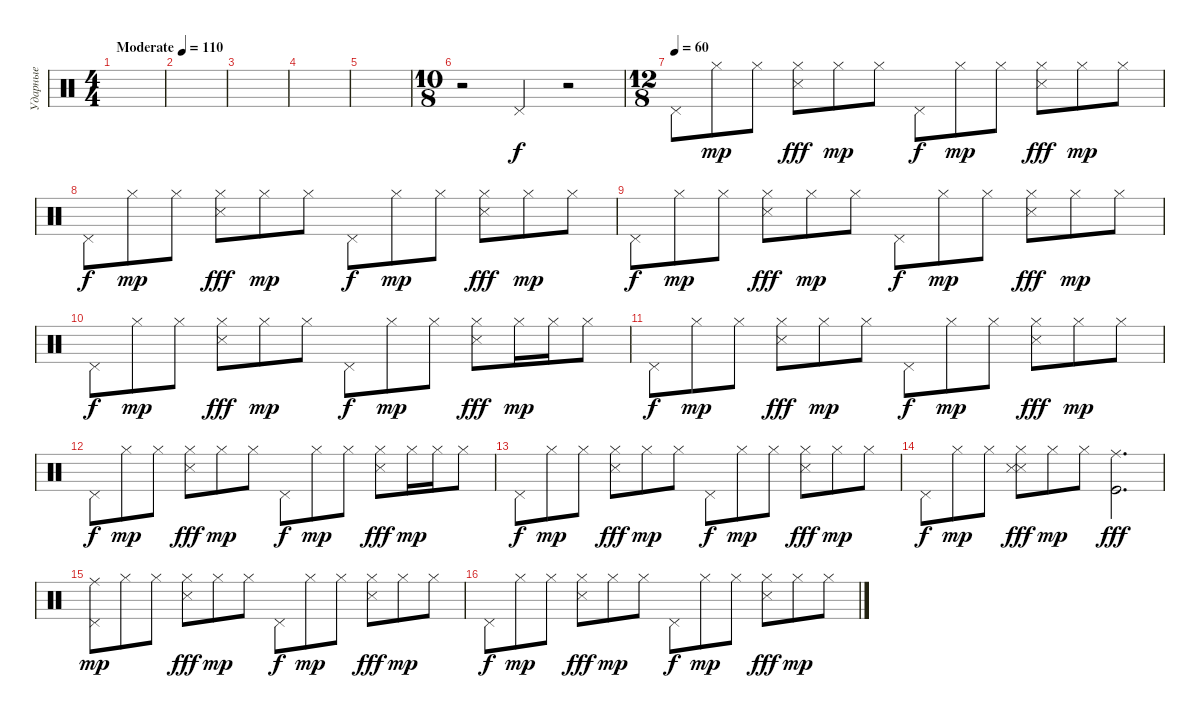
\track ("Ударные" "Ударные") {instrument percussion}
\staff {score}
\articulation defaults
\ts (4 4)
\tempo (110 "Moderate")
\clef neutral
\ks c
|
|
|
|
|
\ts (10 8)
r.2 "Pedal Hi-Hat (hit)".4 r.2 |
\ts (12 8)
\tempo (60)
"Pedal Hi-Hat (hit)".8{dy f} "Hi-Hat (closed)".8{dy mp} "Hi-Hat (closed)".8 ("Hi-Hat (closed)" "Snare (side stick) 3").8{dy fff} "Hi-Hat (closed)".8{dy mp} "Hi-Hat (closed)".8 "Pedal Hi-Hat (hit)".8{dy f} "Hi-Hat (closed)".8{dy mp} "Hi-Hat (closed)".8 ("Hi-Hat (closed)" "Snare (side stick) 3").8{dy fff} "Hi-Hat (closed)".8{dy mp} "Hi-Hat (closed)".8 |
"Pedal Hi-Hat (hit)".8{dy f} "Hi-Hat (closed)".8{dy mp} "Hi-Hat (closed)".8 ("Hi-Hat (closed)" "Snare (side stick) 3").8{dy fff} "Hi-Hat (closed)".8{dy mp} "Hi-Hat (closed)".8 "Pedal Hi-Hat (hit)".8{dy f} "Hi-Hat (closed)".8{dy mp} "Hi-Hat (closed)".8 ("Hi-Hat (closed)" "Snare (side stick) 3").8{dy fff} "Hi-Hat (closed)".8{dy mp} "Hi-Hat (closed)".8 |
"Pedal Hi-Hat (hit)".8{dy f} "Hi-Hat (closed)".8{dy mp} "Hi-Hat (closed)".8 ("Hi-Hat (closed)" "Snare (side stick) 3").8{dy fff} "Hi-Hat (closed)".8{dy mp} "Hi-Hat (closed)".8 "Pedal Hi-Hat (hit)".8{dy f} "Hi-Hat (closed)".8{dy mp} "Hi-Hat (closed)".8 ("Hi-Hat (closed)" "Snare (side stick) 3").8{dy fff} "Hi-Hat (closed)".8{dy mp} "Hi-Hat (closed)".8 |
"Pedal Hi-Hat (hit)".8{dy f} "Hi-Hat (closed)".8{dy mp} "Hi-Hat (closed)".8 ("Hi-Hat (closed)" "Snare (side stick) 3").8{dy fff} "Hi-Hat (closed)".8{dy mp} "Hi-Hat (closed)".8 "Pedal Hi-Hat (hit)".8{dy f} "Hi-Hat (closed)".8{dy mp} "Hi-Hat (closed)".8 ("Hi-Hat (closed)" "Snare (side stick) 3").8{dy fff} "Hi-Hat (closed)".16{dy mp} "Hi-Hat (closed)".16 "Hi-Hat (closed)".8 |
"Pedal Hi-Hat (hit)".8{dy f} "Hi-Hat (closed)".8{dy mp} "Hi-Hat (closed)".8 ("Hi-Hat (closed)" "Snare (side stick) 3").8{dy fff} "Hi-Hat (closed)".8{dy mp} "Hi-Hat (closed)".8 "Pedal Hi-Hat (hit)".8{dy f} "Hi-Hat (closed)".8{dy mp} "Hi-Hat (closed)".8 ("Hi-Hat (closed)" "Snare (side stick) 3").8{dy fff} "Hi-Hat (closed)".8{dy mp} "Hi-Hat (closed)".8 |
"Pedal Hi-Hat (hit)".8{dy f} "Hi-Hat (closed)".8{dy mp} "Hi-Hat (closed)".8 ("Hi-Hat (closed)" "Snare (side stick) 3").8{dy fff} "Hi-Hat (closed)".8{dy mp} "Hi-Hat (closed)".8 "Pedal Hi-Hat (hit)".8{dy f} "Hi-Hat (closed)".8{dy mp} "Hi-Hat (closed)".8 ("Hi-Hat (closed)" "Snare (side stick) 3").8{dy fff} "Hi-Hat (closed)".16{dy mp} "Hi-Hat (closed)".16 "Hi-Hat (closed)".8 |
"Pedal Hi-Hat (hit)".8{dy f} "Hi-Hat (closed)".8{dy mp} "Hi-Hat (closed)".8 ("Hi-Hat (closed)" "Snare (side stick) 3").8{dy fff} "Hi-Hat (closed)".8{dy mp} "Hi-Hat (closed)".8 "Pedal Hi-Hat (hit)".8{dy f} "Hi-Hat (closed)".8{dy mp} "Hi-Hat (closed)".8 ("Hi-Hat (closed)" "Snare (side stick) 3").8{dy fff} "Hi-Hat (closed)".8{dy mp} "Hi-Hat (closed)".8 |
"Pedal Hi-Hat (hit)".8{dy f} "Hi-Hat (closed)".8{dy mp} "Hi-Hat (closed)".8 ("Hi-Hat (closed)" "Snare (side stick) 3" "Metronome (hit)").8{dy fff} "Hi-Hat (closed)".8{dy mp} "Hi-Hat (closed)".8 ("Ride (middle)" "Kick (hit)").2{d dy fff} |
("Pedal Hi-Hat (hit)" "Ride (middle)").8{dy mp} "Hi-Hat (closed)".8 "Hi-Hat (closed)".8 ("Hi-Hat (closed)" "Snare (side stick) 3").8{dy fff} "Hi-Hat (closed)".8{dy mp} "Hi-Hat (closed)".8 "Pedal Hi-Hat (hit)".8{dy f} "Hi-Hat (closed)".8{dy mp} "Hi-Hat (closed)".8 ("Hi-Hat (closed)" "Snare (side stick) 3").8{dy fff} "Hi-Hat (closed)".8{dy mp} "Hi-Hat (closed)".8 |
"Pedal Hi-Hat (hit)".8{dy f} "Hi-Hat (closed)".8{dy mp} "Hi-Hat (closed)".8 ("Hi-Hat (closed)" "Snare (side stick) 3").8{dy fff} "Hi-Hat (closed)".8{dy mp} "Hi-Hat (closed)".8 "Pedal Hi-Hat (hit)".8{dy f} "Hi-Hat (closed)".8{dy mp} "Hi-Hat (closed)".8 ("Hi-Hat (closed)" "Snare (side stick) 3").8{dy fff} "Hi-Hat (closed)".8{dy mp} "Hi-Hat (closed)".8
